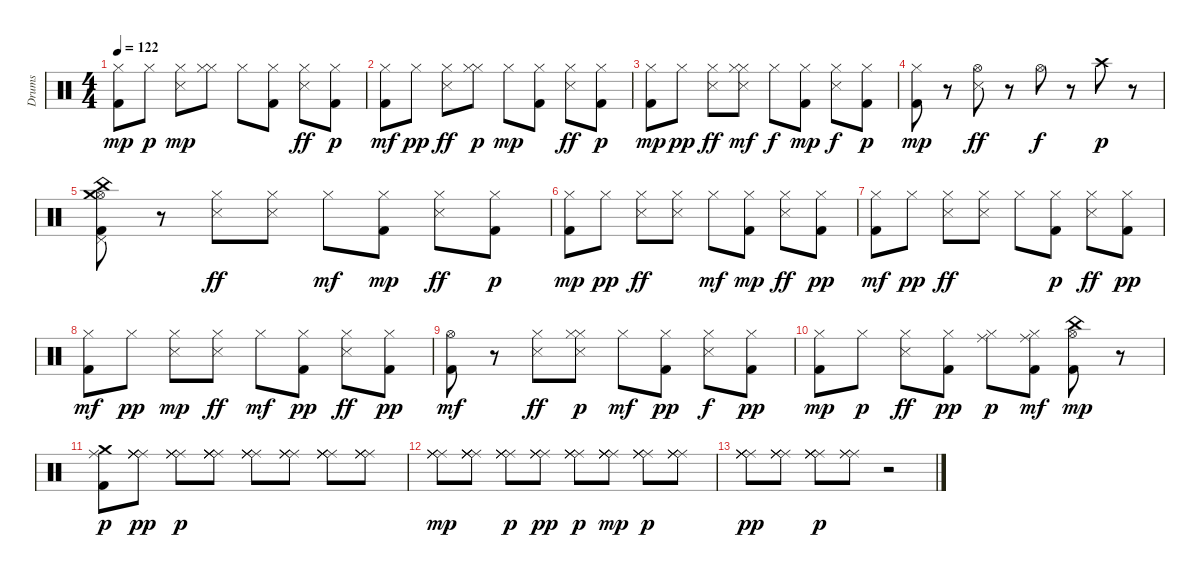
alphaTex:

\track ("Drums    " "Drums    ") {instrument percussion}
\staff {score}
\articulation defaults
\ts (4 4)
\tempo 122
\clef neutral
\ks c
("Hi-Hat (closed)" "Kick (hit) 2").8{dy mp} "Hi-Hat (closed)".8{dy p} ("Hi-Hat (closed)" "Snare (side stick) 3").8{dy mp} ("Hi-Hat (closed)" "Hi-Hat (closed)").8 "Hi-Hat (closed)".8 ("Hi-Hat (closed)" "Kick (hit) 2").8 ("Hi-Hat (closed)" "Snare (side stick) 3").8{dy ff} ("Hi-Hat (closed)" "Kick (hit) 2").8{dy p} |
("Hi-Hat (closed)" "Kick (hit) 2").8{dy mf} "Hi-Hat (closed)".8{dy pp} ("Hi-Hat (closed)" "Snare (side stick) 3").8{dy ff} ("Hi-Hat (closed)" "Hi-Hat (closed)").8{dy p} "Hi-Hat (closed)".8{dy mp} ("Hi-Hat (closed)" "Kick (hit) 2").8 ("Hi-Hat (closed)" "Snare (side stick) 3").8{dy ff} ("Hi-Hat (closed)" "Kick (hit) 2").8{dy p} |
("Hi-Hat (closed)" "Kick (hit) 2").8{dy mp} "Hi-Hat (closed)".8{dy pp} ("Hi-Hat (closed)" "Snare (side stick) 3").8{dy ff} ("Hi-Hat (closed)" "Hi-Hat (closed)" "Snare (side stick) 3").8{dy mf} "Hi-Hat (closed)".8{dy f} ("Hi-Hat (closed)" "Kick (hit) 2").8{dy mp} ("Hi-Hat (closed)" "Snare (side stick) 3").8{dy f} ("Hi-Hat (closed)" "Kick (hit) 2").8{dy p} |
("Hi-Hat (closed)" "Kick (hit) 2").8{dy mp} r.8 ("Hi-Hat (open)" "Snare (side stick) 3").8{dy ff} r.8 "Hi-Hat (open)".8{dy f} r.8 "Crash high (hit)".8{dy p} r.8 |
("Hi-Hat (open)" "Pedal Hi-Hat (hit)" "China (hit)" "Kick (hit) 2" "Crash medium (hit)").8 r.8 ("Hi-Hat (closed)" "Snare (side stick) 3").8{dy ff} ("Hi-Hat (closed)" "Snare (side stick) 3").8 "Hi-Hat (closed)".8{dy mf} ("Hi-Hat (closed)" "Kick (hit) 2").8{dy mp} ("Hi-Hat (closed)" "Snare (side stick) 3").8{dy ff} ("Hi-Hat (closed)" "Kick (hit) 2").8{dy p} |
("Hi-Hat (closed)" "Kick (hit) 2").8{dy mp} "Hi-Hat (closed)".8{dy pp} ("Snare (side stick) 3" "Hi-Hat (closed)").8{dy ff} ("Hi-Hat (closed)" "Snare (side stick) 3").8 "Hi-Hat (closed)".8{dy mf} ("Hi-Hat (closed)" "Kick (hit) 2").8{dy mp} ("Hi-Hat (closed)" "Snare (side stick) 3").8{dy ff} ("Kick (hit) 2" "Hi-Hat (closed)").8{dy pp} |
("Kick (hit) 2" "Hi-Hat (closed)").8{dy mf} "Hi-Hat (closed)".8{dy pp} ("Snare (side stick) 3" "Hi-Hat (closed)").8{dy ff} ("Hi-Hat (closed)" "Snare (side stick) 3").8 "Hi-Hat (closed)".8 ("Kick (hit) 2" "Hi-Hat (closed)").8{dy p} ("Snare (side stick) 3" "Hi-Hat (closed)").8{dy ff} ("Kick (hit) 2" "Hi-Hat (closed)").8{dy pp} |
("Kick (hit) 2" "Hi-Hat (closed)").8{dy mf} "Hi-Hat (closed)".8{dy pp} ("Snare (side stick) 3" "Hi-Hat (closed)").8{dy mp} ("Hi-Hat (closed)" "Snare (side stick) 3").8{dy ff} "Hi-Hat (closed)".8{dy mf} ("Kick (hit) 2" "Hi-Hat (closed)").8{dy pp} ("Hi-Hat (closed)" "Snare (side stick) 3").8{dy ff} ("Kick (hit) 2" "Hi-Hat (closed)").8{dy pp} |
("Kick (hit) 2" "Hi-Hat (open)").8{dy mf} r.8 ("Hi-Hat (closed)" "Snare (side stick) 3").8{dy ff} ("Hi-Hat (closed)" "Snare (side stick) 3" "Hi-Hat (closed)").8{dy p} "Hi-Hat (closed)".8{dy mf} ("Kick (hit) 2" "Hi-Hat (closed)").8{dy pp} ("Snare (side stick) 3" "Hi-Hat (closed)").8{dy f} ("Kick (hit) 2" "Hi-Hat (closed)").8{dy pp} |
("Kick (hit) 2" "Hi-Hat (closed)").8{dy mp} "Hi-Hat (closed)".8{dy p} ("Hi-Hat (closed)" "Snare (side stick) 3").8{dy ff} ("Kick (hit) 2" "Hi-Hat (closed)").8{dy pp} ("Hi-Hat (closed)" "Ride (middle)").8{dy p} ("Kick (hit) 2" "Hi-Hat (closed)" "Ride (middle)").8{dy mf} ("Kick (hit) 2" "China (hit)" "Hi-Hat (open)").8{dy mp} r.8 |
("Kick (hit) 2" "Crash medium (hit)" "Ride (middle)").8{dy p} ("Ride (middle)" "Ride (middle)" "Ride (middle)" "Ride (middle)" "Ride (middle)").8{dy pp} ("Ride (middle)" "Ride (middle)" "Ride (middle)" "Ride (middle)").8{dy p} ("Ride (middle)" "Ride (middle)" "Ride (middle)" "Ride (middle)" "Ride (middle)").8 ("Ride (middle)" "Ride (middle)" "Ride (middle)" "Ride (middle)").8 ("Ride (middle)" "Ride (middle)" "Ride (middle)" "Ride (middle)").8 ("Ride (middle)" "Ride (middle)" "Ride (middle)" "Ride (middle)" "Ride (middle)").8 ("Ride (middle)" "Ride (middle)" "Ride (middle)" "Ride (middle)").8 |
("Ride (middle)" "Ride (middle)" "Ride (middle)" "Ride (middle)").8{dy mp} ("Ride (middle)" "Ride (middle)" "Ride (middle)" "Ride (middle)" "Ride (middle)").8 ("Ride (middle)" "Ride (middle)" "Ride (middle)" "Ride (middle)").8{dy p} ("Ride (middle)" "Ride (middle)" "Ride (middle)" "Ride (middle)").8{dy pp} ("Ride (middle)" "Ride (middle)" "Ride (middle)" "Ride (middle)").8{dy p} ("Ride (middle)" "Ride (middle)" "Ride (middle)" "Ride (middle)" "Ride (middle)").8{dy mp} ("Ride (middle)" "Ride (middle)" "Ride (middle)" "Ride (middle)").8{dy p} ("Ride (middle)" "Ride (middle)" "Ride (middle)" "Ride (middle)").8 |
("Ride (middle)" "Ride (middle)" "Ride (middle)" "Ride (middle)" "Ride (middle)").8{dy pp} ("Ride (middle)" "Ride (middle)" "Ride (middle)" "Ride (middle)").8 ("Ride (middle)" "Ride (middle)" "Ride (middle)" "Ride (middle)" "Ride (middle)").8{dy p} ("Ride (middle)" "Ride (middle)" "Ride (middle)").8 r.2
